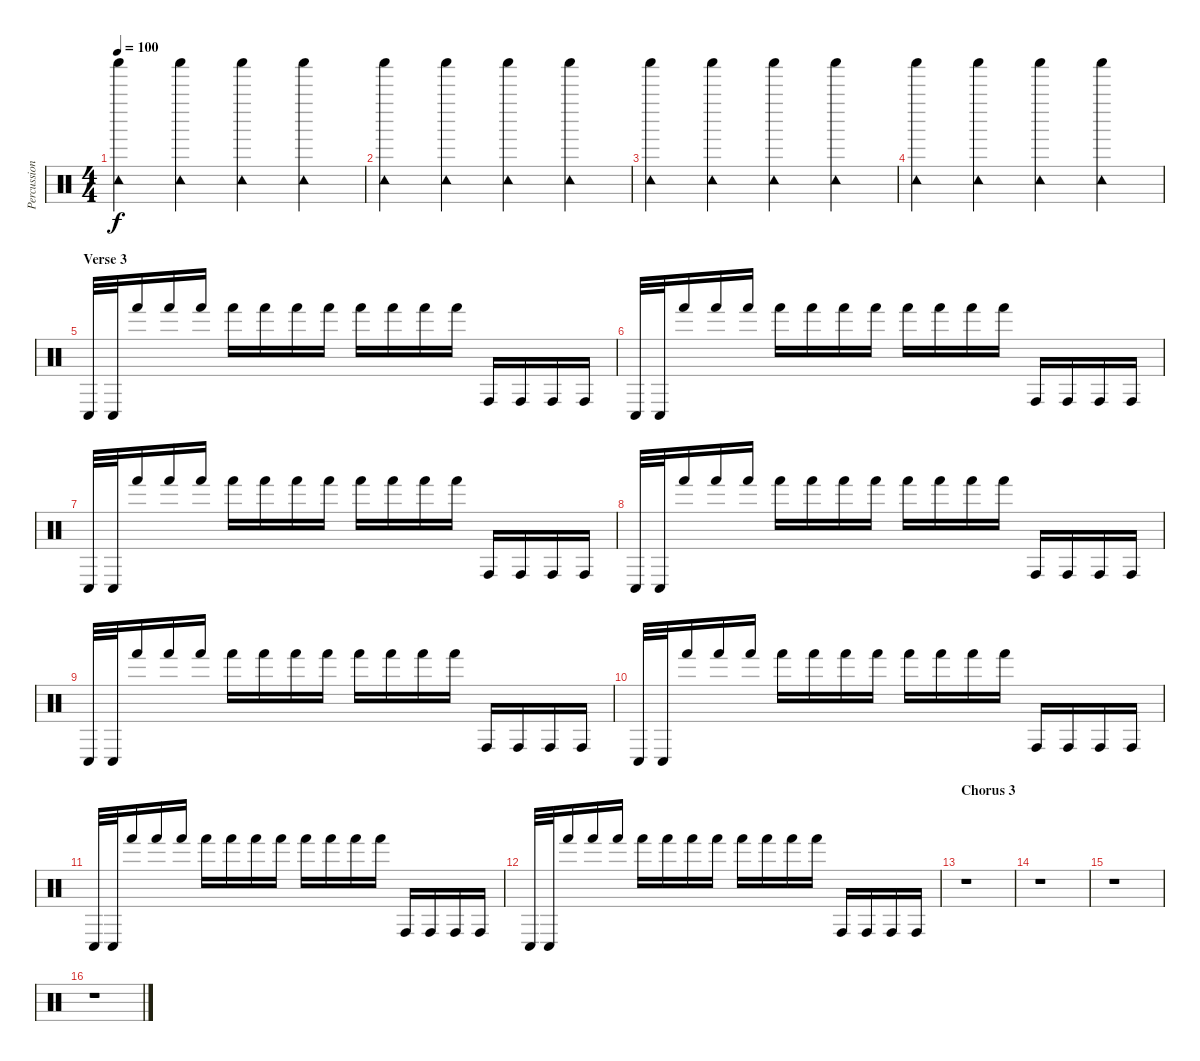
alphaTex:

\track ("Percussions additionnelles" "Percussion") {instrument percussion}
\staff {score}
\articulation defaults
\ts (4 4)
\tempo 100
\clef neutral
\ks c
("Shaker (hit)" "Tambourine (hit)").4{dy f} ("Shaker (hit)" "Tambourine (hit)").4 ("Shaker (hit)" "Tambourine (hit)").4 ("Shaker (hit)" "Tambourine (hit)").4 |
("Shaker (hit)" "Tambourine (hit)").4 ("Shaker (hit)" "Tambourine (hit)").4 ("Shaker (hit)" "Tambourine (hit)").4 ("Shaker (hit)" "Tambourine (hit)").4 |
("Shaker (hit)" "Tambourine (hit)").4 ("Shaker (hit)" "Tambourine (hit)").4 ("Shaker (hit)" "Tambourine (hit)").4 ("Shaker (hit)" "Tambourine (hit)").4 |
("Shaker (hit)" "Tambourine (hit)").4 ("Shaker (hit)" "Tambourine (hit)").4 ("Shaker (hit)" "Tambourine (hit)").4 ("Shaker (hit)" "Tambourine (hit)").4 |
\section ("" "Verse 3")
"Conga low (hit)".32 "Conga low (hit)".32 "Hand (hit)".16 "Hand (hit)".16 "Hand (hit)".16 "Hand (hit)".16 "Hand (hit)".16 "Hand (hit)".16 "Hand (hit)".16 "Hand (hit)".16 "Hand (hit)".16 "Hand (hit)".16 "Hand (hit)".16 "Conga high (hit)".16 "Conga high (hit)".16 "Conga high (hit)".16 "Conga high (hit)".16 |
"Conga low (hit)".32 "Conga low (hit)".32 "Hand (hit)".16 "Hand (hit)".16 "Hand (hit)".16 "Hand (hit)".16 "Hand (hit)".16 "Hand (hit)".16 "Hand (hit)".16 "Hand (hit)".16 "Hand (hit)".16 "Hand (hit)".16 "Hand (hit)".16 "Conga high (hit)".16 "Conga high (hit)".16 "Conga high (hit)".16 "Conga high (hit)".16 |
"Conga low (hit)".32 "Conga low (hit)".32 "Hand (hit)".16 "Hand (hit)".16 "Hand (hit)".16 "Hand (hit)".16 "Hand (hit)".16 "Hand (hit)".16 "Hand (hit)".16 "Hand (hit)".16 "Hand (hit)".16 "Hand (hit)".16 "Hand (hit)".16 "Conga high (hit)".16 "Conga high (hit)".16 "Conga high (hit)".16 "Conga high (hit)".16 |
"Conga low (hit)".32 "Conga low (hit)".32 "Hand (hit)".16 "Hand (hit)".16 "Hand (hit)".16 "Hand (hit)".16 "Hand (hit)".16 "Hand (hit)".16 "Hand (hit)".16 "Hand (hit)".16 "Hand (hit)".16 "Hand (hit)".16 "Hand (hit)".16 "Conga high (hit)".16 "Conga high (hit)".16 "Conga high (hit)".16 "Conga high (hit)".16 |
"Conga low (hit)".32 "Conga low (hit)".32 "Hand (hit)".16 "Hand (hit)".16 "Hand (hit)".16 "Hand (hit)".16 "Hand (hit)".16 "Hand (hit)".16 "Hand (hit)".16 "Hand (hit)".16 "Hand (hit)".16 "Hand (hit)".16 "Hand (hit)".16 "Conga high (hit)".16 "Conga high (hit)".16 "Conga high (hit)".16 "Conga high (hit)".16 |
"Conga low (hit)".32 "Conga low (hit)".32 "Hand (hit)".16 "Hand (hit)".16 "Hand (hit)".16 "Hand (hit)".16 "Hand (hit)".16 "Hand (hit)".16 "Hand (hit)".16 "Hand (hit)".16 "Hand (hit)".16 "Hand (hit)".16 "Hand (hit)".16 "Conga high (hit)".16 "Conga high (hit)".16 "Conga high (hit)".16 "Conga high (hit)".16 |
"Conga low (hit)".32 "Conga low (hit)".32 "Hand (hit)".16 "Hand (hit)".16 "Hand (hit)".16 "Hand (hit)".16 "Hand (hit)".16 "Hand (hit)".16 "Hand (hit)".16 "Hand (hit)".16 "Hand (hit)".16 "Hand (hit)".16 "Hand (hit)".16 "Conga high (hit)".16 "Conga high (hit)".16 "Conga high (hit)".16 "Conga high (hit)".16 |
"Conga low (hit)".32 "Conga low (hit)".32 "Hand (hit)".16 "Hand (hit)".16 "Hand (hit)".16 "Hand (hit)".16 "Hand (hit)".16 "Hand (hit)".16 "Hand (hit)".16 "Hand (hit)".16 "Hand (hit)".16 "Hand (hit)".16 "Hand (hit)".16 "Conga high (hit)".16 "Conga high (hit)".16 "Conga high (hit)".16 "Conga high (hit)".16 |
\section ("" "Chorus 3")
r.1 |
r.1 |
r.1 |
r.1
